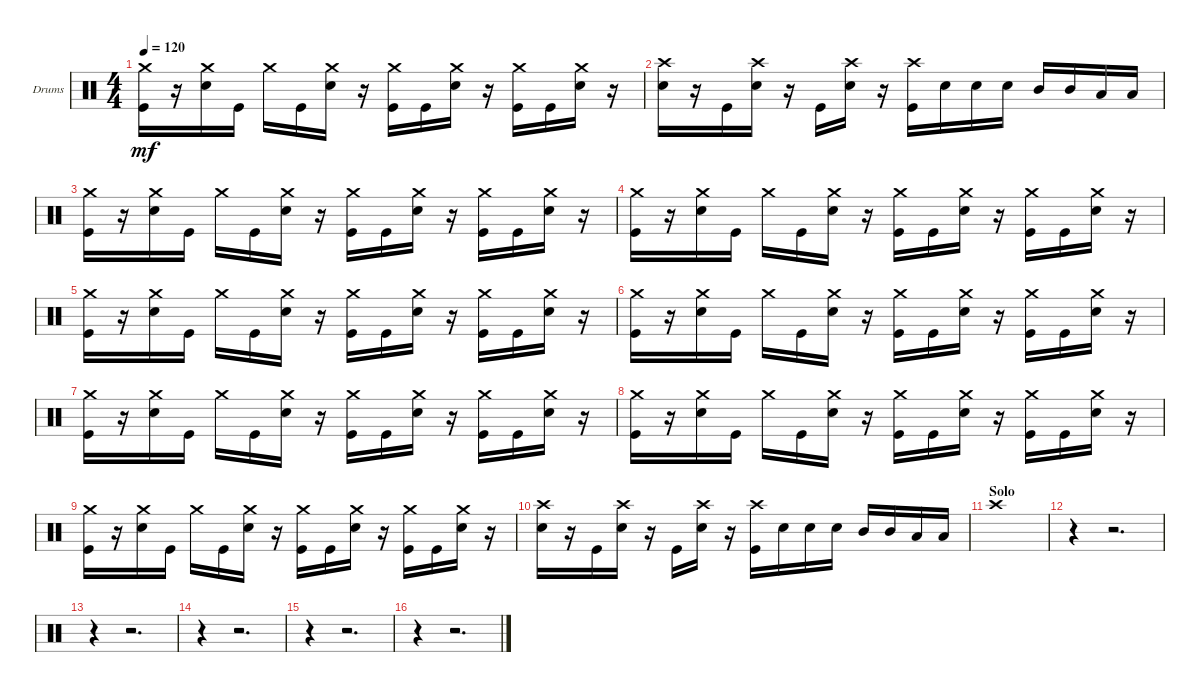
\bracketExtendMode groupsimilarinstruments
\firstSystemTrackNameOrientation horizontal
\otherSystemsTrackNameOrientation horizontal
\track ("Drumkit" "Drums") {instrument percussion}
\staff {score}
\articulation defaults
\ts (4 4)
\tempo 120
\clef neutral
\ks c
("Kick (hit)" "Crash medium (hit)").16{dy mf} r.16 ("Snare (hit) 2" "Crash medium (hit)").16 "Kick (hit)".16 "Crash medium (hit)".16 "Kick (hit)".16 ("Snare (hit) 2" "Crash medium (hit)").16 r.16 ("Kick (hit)" "Crash medium (hit)").16 "Kick (hit)".16 ("Snare (hit) 2" "Crash medium (hit)").16 r.16 ("Kick (hit)" "Crash medium (hit)").16 "Kick (hit)".16 ("Snare (hit) 2" "Crash medium (hit)").16 r.16 |
("Snare (hit) 2" "Crash high (hit)").16 r.16 "Kick (hit)".16 ("Snare (hit) 2" "Crash high (hit)").16 r.16 "Kick (hit)".16 ("Snare (hit) 2" "Crash high (hit)").16 r.16 ("Kick (hit)" "Crash high (hit)").16 "Snare (hit) 2".16 "Snare (hit) 2".16 "Snare (hit) 2".16 "Mid Tom (hit)".16 "Mid Tom (hit)".16 "Low Tom (hit)".16 "Low Tom (hit)".16 |
("Kick (hit)" "Crash medium (hit)").16 r.16 ("Snare (hit) 2" "Crash medium (hit)").16 "Kick (hit)".16 "Crash medium (hit)".16 "Kick (hit)".16 ("Snare (hit) 2" "Crash medium (hit)").16 r.16 ("Kick (hit)" "Crash medium (hit)").16 "Kick (hit)".16 ("Snare (hit) 2" "Crash medium (hit)").16 r.16 ("Kick (hit)" "Crash medium (hit)").16 "Kick (hit)".16 ("Snare (hit) 2" "Crash medium (hit)").16 r.16 |
("Kick (hit)" "Crash medium (hit)").16 r.16 ("Snare (hit) 2" "Crash medium (hit)").16 "Kick (hit)".16 "Crash medium (hit)".16 "Kick (hit)".16 ("Snare (hit) 2" "Crash medium (hit)").16 r.16 ("Kick (hit)" "Crash medium (hit)").16 "Kick (hit)".16 ("Snare (hit) 2" "Crash medium (hit)").16 r.16 ("Kick (hit)" "Crash medium (hit)").16 "Kick (hit)".16 ("Snare (hit) 2" "Crash medium (hit)").16 r.16 |
("Kick (hit)" "Crash medium (hit)").16 r.16 ("Snare (hit) 2" "Crash medium (hit)").16 "Kick (hit)".16 "Crash medium (hit)".16 "Kick (hit)".16 ("Snare (hit) 2" "Crash medium (hit)").16 r.16 ("Kick (hit)" "Crash medium (hit)").16 "Kick (hit)".16 ("Snare (hit) 2" "Crash medium (hit)").16 r.16 ("Kick (hit)" "Crash medium (hit)").16 "Kick (hit)".16 ("Snare (hit) 2" "Crash medium (hit)").16 r.16 |
("Kick (hit)" "Crash medium (hit)").16 r.16 ("Snare (hit) 2" "Crash medium (hit)").16 "Kick (hit)".16 "Crash medium (hit)".16 "Kick (hit)".16 ("Snare (hit) 2" "Crash medium (hit)").16 r.16 ("Kick (hit)" "Crash medium (hit)").16 "Kick (hit)".16 ("Snare (hit) 2" "Crash medium (hit)").16 r.16 ("Kick (hit)" "Crash medium (hit)").16 "Kick (hit)".16 ("Snare (hit) 2" "Crash medium (hit)").16 r.16 |
("Kick (hit)" "Crash medium (hit)").16 r.16 ("Snare (hit) 2" "Crash medium (hit)").16 "Kick (hit)".16 "Crash medium (hit)".16 "Kick (hit)".16 ("Snare (hit) 2" "Crash medium (hit)").16 r.16 ("Kick (hit)" "Crash medium (hit)").16 "Kick (hit)".16 ("Snare (hit) 2" "Crash medium (hit)").16 r.16 ("Kick (hit)" "Crash medium (hit)").16 "Kick (hit)".16 ("Snare (hit) 2" "Crash medium (hit)").16 r.16 |
("Kick (hit)" "Crash medium (hit)").16 r.16 ("Snare (hit) 2" "Crash medium (hit)").16 "Kick (hit)".16 "Crash medium (hit)".16 "Kick (hit)".16 ("Snare (hit) 2" "Crash medium (hit)").16 r.16 ("Kick (hit)" "Crash medium (hit)").16 "Kick (hit)".16 ("Snare (hit) 2" "Crash medium (hit)").16 r.16 ("Kick (hit)" "Crash medium (hit)").16 "Kick (hit)".16 ("Snare (hit) 2" "Crash medium (hit)").16 r.16 |
("Kick (hit)" "Crash medium (hit)").16 r.16 ("Snare (hit) 2" "Crash medium (hit)").16 "Kick (hit)".16 "Crash medium (hit)".16 "Kick (hit)".16 ("Snare (hit) 2" "Crash medium (hit)").16 r.16 ("Kick (hit)" "Crash medium (hit)").16 "Kick (hit)".16 ("Snare (hit) 2" "Crash medium (hit)").16 r.16 ("Kick (hit)" "Crash medium (hit)").16 "Kick (hit)".16 ("Snare (hit) 2" "Crash medium (hit)").16 r.16 |
("Snare (hit) 2" "Crash high (hit)").16 r.16 "Kick (hit)".16 ("Snare (hit) 2" "Crash high (hit)").16 r.16 "Kick (hit)".16 ("Snare (hit) 2" "Crash high (hit)").16 r.16 ("Kick (hit)" "Crash high (hit)").16 "Snare (hit) 2".16 "Snare (hit) 2".16 "Snare (hit) 2".16 "Mid Tom (hit)".16 "Mid Tom (hit)".16 "Low Tom (hit)".16 "Low Tom (hit)".16 |
\section ("" "Solo")
"Crash high (hit)".1 |
r.4 r.2{d} |
r.4 r.2{d} |
r.4 r.2{d} |
r.4 r.2{d} |
r.4 r.2{d}
